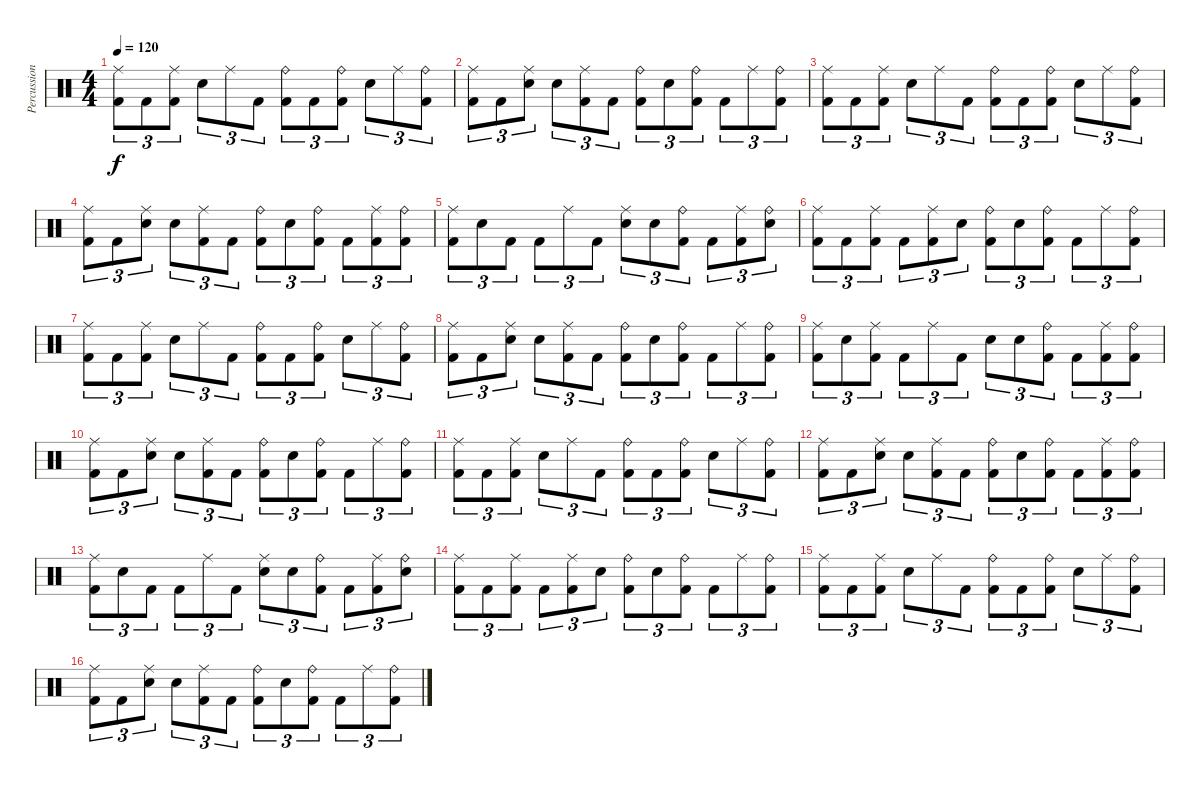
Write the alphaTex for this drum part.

\track ("Percussioni" "Percussion") {instrument percussion}
\staff {score}
\articulation defaults
\ts (4 4)
\tempo 120
\clef neutral
\ks c
("Ride (middle)" "Kick (hit) 2").8{tu (3 2) dy f} "Kick (hit) 2".8{tu (3 2)} ("Ride (middle)" "Kick (hit) 2").8{tu (3 2)} "Electric Snare (hit)".8{tu (3 2)} "Ride (middle)".8{tu (3 2)} "Kick (hit) 2".8{tu (3 2)} ("Ride (bell)" "Kick (hit) 2").8{tu (3 2)} "Kick (hit) 2".8{tu (3 2)} ("Ride (bell)" "Kick (hit) 2").8{tu (3 2)} "Electric Snare (hit)".8{tu (3 2)} "Ride (middle)".8{tu (3 2)} ("Kick (hit) 2" "Ride (bell)").8{tu (3 2)} |
("Ride (middle)" "Kick (hit) 2").8{tu (3 2)} "Kick (hit) 2".8{tu (3 2)} ("Ride (middle)" "Electric Snare (hit)").8{tu (3 2)} "Electric Snare (hit)".8{tu (3 2)} ("Ride (middle)" "Kick (hit) 2").8{tu (3 2)} "Kick (hit) 2".8{tu (3 2)} ("Ride (bell)" "Kick (hit) 2").8{tu (3 2)} "Electric Snare (hit)".8{tu (3 2)} ("Ride (bell)" "Kick (hit) 2").8{tu (3 2)} "Kick (hit) 2".8{tu (3 2)} "Ride (middle)".8{tu (3 2)} ("Kick (hit) 2" "Ride (bell)").8{tu (3 2)} |
("Ride (middle)" "Kick (hit) 2").8{tu (3 2)} "Kick (hit) 2".8{tu (3 2)} ("Ride (middle)" "Kick (hit) 2").8{tu (3 2)} "Electric Snare (hit)".8{tu (3 2)} "Ride (middle)".8{tu (3 2)} "Kick (hit) 2".8{tu (3 2)} ("Ride (bell)" "Kick (hit) 2").8{tu (3 2)} "Kick (hit) 2".8{tu (3 2)} ("Ride (bell)" "Kick (hit) 2").8{tu (3 2)} "Electric Snare (hit)".8{tu (3 2)} "Ride (middle)".8{tu (3 2)} ("Kick (hit) 2" "Ride (bell)").8{tu (3 2)} |
("Ride (middle)" "Kick (hit) 2").8{tu (3 2)} "Kick (hit) 2".8{tu (3 2)} ("Ride (middle)" "Electric Snare (hit)").8{tu (3 2)} "Electric Snare (hit)".8{tu (3 2)} ("Ride (middle)" "Kick (hit) 2").8{tu (3 2)} "Kick (hit) 2".8{tu (3 2)} ("Ride (bell)" "Kick (hit) 2").8{tu (3 2)} "Electric Snare (hit)".8{tu (3 2)} ("Ride (bell)" "Kick (hit) 2").8{tu (3 2)} "Kick (hit) 2".8{tu (3 2)} ("Kick (hit) 2" "Ride (middle)").8{tu (3 2)} ("Kick (hit) 2" "Ride (bell)").8{tu (3 2)} |
("Ride (middle)" "Kick (hit) 2").8{tu (3 2)} "Electric Snare (hit)".8{tu (3 2)} "Kick (hit) 2".8{tu (3 2)} "Kick (hit) 2".8{tu (3 2)} "Ride (middle)".8{tu (3 2)} "Kick (hit) 2".8{tu (3 2)} ("Electric Snare (hit)" "Ride (middle)").8{tu (3 2)} "Electric Snare (hit)".8{tu (3 2)} ("Ride (bell)" "Kick (hit) 2").8{tu (3 2)} "Kick (hit) 2".8{tu (3 2)} ("Kick (hit) 2" "Ride (middle)").8{tu (3 2)} ("Electric Snare (hit)" "Ride (bell)").8{tu (3 2)} |
("Ride (middle)" "Kick (hit) 2").8{tu (3 2)} "Kick (hit) 2".8{tu (3 2)} ("Ride (middle)" "Kick (hit) 2").8{tu (3 2)} "Kick (hit) 2".8{tu (3 2)} ("Ride (middle)" "Kick (hit) 2").8{tu (3 2)} "Electric Snare (hit)".8{tu (3 2)} ("Ride (bell)" "Kick (hit) 2").8{tu (3 2)} "Electric Snare (hit)".8{tu (3 2)} ("Ride (bell)" "Kick (hit) 2").8{tu (3 2)} "Kick (hit) 2".8{tu (3 2)} "Ride (middle)".8{tu (3 2)} ("Kick (hit) 2" "Ride (bell)").8{tu (3 2)} |
("Ride (middle)" "Kick (hit) 2").8{tu (3 2)} "Kick (hit) 2".8{tu (3 2)} ("Ride (middle)" "Kick (hit) 2").8{tu (3 2)} "Electric Snare (hit)".8{tu (3 2)} "Ride (middle)".8{tu (3 2)} "Kick (hit) 2".8{tu (3 2)} ("Ride (bell)" "Kick (hit) 2").8{tu (3 2)} "Kick (hit) 2".8{tu (3 2)} ("Ride (bell)" "Kick (hit) 2").8{tu (3 2)} "Electric Snare (hit)".8{tu (3 2)} "Ride (middle)".8{tu (3 2)} ("Kick (hit) 2" "Ride (bell)").8{tu (3 2)} |
("Ride (middle)" "Kick (hit) 2").8{tu (3 2)} "Kick (hit) 2".8{tu (3 2)} ("Ride (middle)" "Electric Snare (hit)").8{tu (3 2)} "Electric Snare (hit)".8{tu (3 2)} ("Ride (middle)" "Kick (hit) 2").8{tu (3 2)} "Kick (hit) 2".8{tu (3 2)} ("Ride (bell)" "Kick (hit) 2").8{tu (3 2)} "Electric Snare (hit)".8{tu (3 2)} ("Ride (bell)" "Kick (hit) 2").8{tu (3 2)} "Kick (hit) 2".8{tu (3 2)} "Ride (middle)".8{tu (3 2)} ("Kick (hit) 2" "Ride (bell)").8{tu (3 2)} |
("Ride (middle)" "Kick (hit) 2").8{tu (3 2)} "Electric Snare (hit)".8{tu (3 2)} ("Ride (middle)" "Kick (hit) 2").8{tu (3 2)} "Kick (hit) 2".8{tu (3 2)} "Ride (middle)".8{tu (3 2)} "Kick (hit) 2".8{tu (3 2)} "Electric Snare (hit)".8{tu (3 2)} "Electric Snare (hit)".8{tu (3 2)} ("Ride (bell)" "Kick (hit) 2").8{tu (3 2)} "Kick (hit) 2".8{tu (3 2)} ("Kick (hit) 2" "Ride (middle)").8{tu (3 2)} ("Kick (hit) 2" "Ride (bell)").8{tu (3 2)} |
("Ride (middle)" "Kick (hit) 2").8{tu (3 2)} "Kick (hit) 2".8{tu (3 2)} ("Ride (middle)" "Electric Snare (hit)").8{tu (3 2)} "Electric Snare (hit)".8{tu (3 2)} ("Ride (middle)" "Kick (hit) 2").8{tu (3 2)} "Kick (hit) 2".8{tu (3 2)} ("Ride (bell)" "Kick (hit) 2").8{tu (3 2)} "Electric Snare (hit)".8{tu (3 2)} ("Ride (bell)" "Kick (hit) 2").8{tu (3 2)} "Kick (hit) 2".8{tu (3 2)} "Ride (middle)".8{tu (3 2)} ("Kick (hit) 2" "Ride (bell)").8{tu (3 2)} |
("Ride (middle)" "Kick (hit) 2").8{tu (3 2)} "Kick (hit) 2".8{tu (3 2)} ("Ride (middle)" "Kick (hit) 2").8{tu (3 2)} "Electric Snare (hit)".8{tu (3 2)} "Ride (middle)".8{tu (3 2)} "Kick (hit) 2".8{tu (3 2)} ("Ride (bell)" "Kick (hit) 2").8{tu (3 2)} "Kick (hit) 2".8{tu (3 2)} ("Ride (bell)" "Kick (hit) 2").8{tu (3 2)} "Electric Snare (hit)".8{tu (3 2)} "Ride (middle)".8{tu (3 2)} ("Kick (hit) 2" "Ride (bell)").8{tu (3 2)} |
("Ride (middle)" "Kick (hit) 2").8{tu (3 2)} "Kick (hit) 2".8{tu (3 2)} ("Ride (middle)" "Electric Snare (hit)").8{tu (3 2)} "Electric Snare (hit)".8{tu (3 2)} ("Ride (middle)" "Kick (hit) 2").8{tu (3 2)} "Kick (hit) 2".8{tu (3 2)} ("Ride (bell)" "Kick (hit) 2").8{tu (3 2)} "Electric Snare (hit)".8{tu (3 2)} ("Ride (bell)" "Kick (hit) 2").8{tu (3 2)} "Kick (hit) 2".8{tu (3 2)} ("Kick (hit) 2" "Ride (middle)").8{tu (3 2)} ("Kick (hit) 2" "Ride (bell)").8{tu (3 2)} |
("Ride (middle)" "Kick (hit) 2").8{tu (3 2)} "Electric Snare (hit)".8{tu (3 2)} "Kick (hit) 2".8{tu (3 2)} "Kick (hit) 2".8{tu (3 2)} "Ride (middle)".8{tu (3 2)} "Kick (hit) 2".8{tu (3 2)} ("Electric Snare (hit)" "Ride (middle)").8{tu (3 2)} "Electric Snare (hit)".8{tu (3 2)} ("Ride (bell)" "Kick (hit) 2").8{tu (3 2)} "Kick (hit) 2".8{tu (3 2)} ("Kick (hit) 2" "Ride (middle)").8{tu (3 2)} ("Electric Snare (hit)" "Ride (bell)").8{tu (3 2)} |
("Ride (middle)" "Kick (hit) 2").8{tu (3 2)} "Kick (hit) 2".8{tu (3 2)} ("Ride (middle)" "Kick (hit) 2").8{tu (3 2)} "Kick (hit) 2".8{tu (3 2)} ("Ride (middle)" "Kick (hit) 2").8{tu (3 2)} "Electric Snare (hit)".8{tu (3 2)} ("Ride (bell)" "Kick (hit) 2").8{tu (3 2)} "Electric Snare (hit)".8{tu (3 2)} ("Ride (bell)" "Kick (hit) 2").8{tu (3 2)} "Kick (hit) 2".8{tu (3 2)} "Ride (middle)".8{tu (3 2)} ("Kick (hit) 2" "Ride (bell)").8{tu (3 2)} |
("Ride (middle)" "Kick (hit) 2").8{tu (3 2)} "Kick (hit) 2".8{tu (3 2)} ("Ride (middle)" "Kick (hit) 2").8{tu (3 2)} "Electric Snare (hit)".8{tu (3 2)} "Ride (middle)".8{tu (3 2)} "Kick (hit) 2".8{tu (3 2)} ("Ride (bell)" "Kick (hit) 2").8{tu (3 2)} "Kick (hit) 2".8{tu (3 2)} ("Ride (bell)" "Kick (hit) 2").8{tu (3 2)} "Electric Snare (hit)".8{tu (3 2)} "Ride (middle)".8{tu (3 2)} ("Kick (hit) 2" "Ride (bell)").8{tu (3 2)} |
("Ride (middle)" "Kick (hit) 2").8{tu (3 2)} "Kick (hit) 2".8{tu (3 2)} ("Ride (middle)" "Electric Snare (hit)").8{tu (3 2)} "Electric Snare (hit)".8{tu (3 2)} ("Ride (middle)" "Kick (hit) 2").8{tu (3 2)} "Kick (hit) 2".8{tu (3 2)} ("Ride (bell)" "Kick (hit) 2").8{tu (3 2)} "Electric Snare (hit)".8{tu (3 2)} ("Ride (bell)" "Kick (hit) 2").8{tu (3 2)} "Kick (hit) 2".8{tu (3 2)} "Ride (middle)".8{tu (3 2)} ("Kick (hit) 2" "Ride (bell)").8{tu (3 2)}
